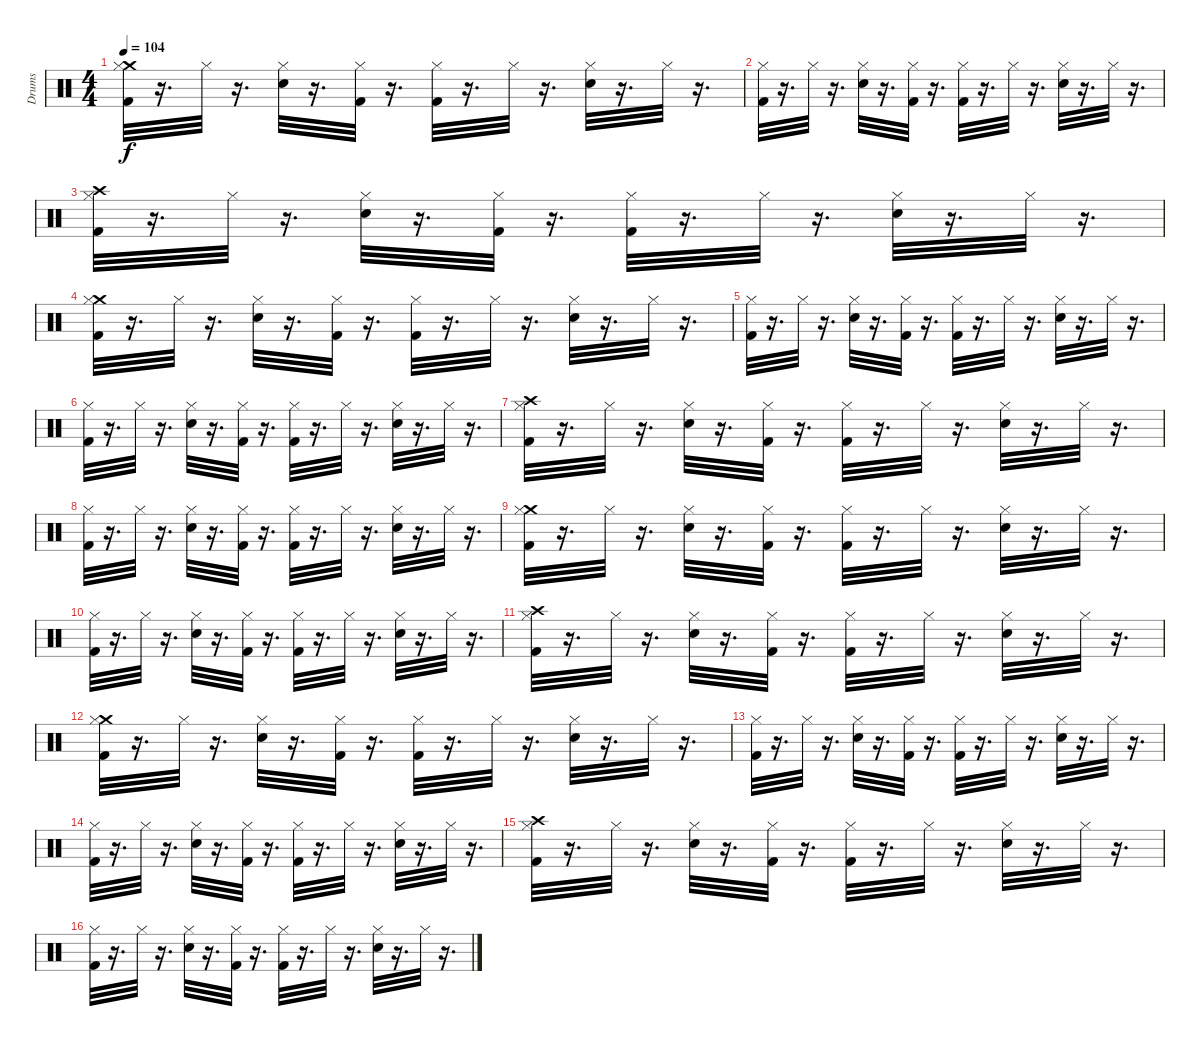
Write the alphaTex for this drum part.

\track ("Drums" "Drums") {instrument percussion}
\staff {score}
\articulation defaults
\ts (4 4)
\tempo 104
\clef neutral
\ks c
("Crash medium (hit)" "Hi-Hat (closed)" "Kick (hit) 2").32{dy f} r.16{d} "Hi-Hat (closed)".32 r.16{d} ("Hi-Hat (closed)" "Snare (hit) 2").32 r.16{d} ("Kick (hit) 2" "Hi-Hat (closed)").32 r.16{d} ("Hi-Hat (closed)" "Kick (hit) 2").32 r.16{d} "Hi-Hat (closed)".32 r.16{d} ("Hi-Hat (closed)" "Snare (hit) 2").32 r.16{d} "Hi-Hat (closed)".32 r.16{d} |
("Hi-Hat (closed)" "Kick (hit) 2").32 r.16{d} "Hi-Hat (closed)".32 r.16{d} ("Hi-Hat (closed)" "Snare (hit) 2").32 r.16{d} ("Kick (hit) 2" "Hi-Hat (closed)").32 r.16{d} ("Hi-Hat (closed)" "Kick (hit) 2").32 r.16{d} "Hi-Hat (closed)".32 r.16{d} ("Hi-Hat (closed)" "Snare (hit) 2").32 r.16{d} "Hi-Hat (closed)".32 r.16{d} |
("Crash high (hit)" "Hi-Hat (closed)" "Kick (hit) 2").32 r.16{d} "Hi-Hat (closed)".32 r.16{d} ("Hi-Hat (closed)" "Snare (hit) 2").32 r.16{d} ("Kick (hit) 2" "Hi-Hat (closed)").32 r.16{d} ("Hi-Hat (closed)" "Kick (hit) 2").32 r.16{d} "Hi-Hat (closed)".32 r.16{d} ("Hi-Hat (closed)" "Snare (hit) 2").32 r.16{d} "Hi-Hat (closed)".32 r.16{d} |
("Crash medium (hit)" "Hi-Hat (closed)" "Kick (hit) 2").32 r.16{d} "Hi-Hat (closed)".32 r.16{d} ("Hi-Hat (closed)" "Snare (hit) 2").32 r.16{d} ("Kick (hit) 2" "Hi-Hat (closed)").32 r.16{d} ("Hi-Hat (closed)" "Kick (hit) 2").32 r.16{d} "Hi-Hat (closed)".32 r.16{d} ("Hi-Hat (closed)" "Snare (hit) 2").32 r.16{d} "Hi-Hat (closed)".32 r.16{d} |
("Hi-Hat (closed)" "Kick (hit) 2").32 r.16{d} "Hi-Hat (closed)".32 r.16{d} ("Hi-Hat (closed)" "Snare (hit) 2").32 r.16{d} ("Kick (hit) 2" "Hi-Hat (closed)").32 r.16{d} ("Hi-Hat (closed)" "Kick (hit) 2").32 r.16{d} "Hi-Hat (closed)".32 r.16{d} ("Hi-Hat (closed)" "Snare (hit) 2").32 r.16{d} "Hi-Hat (closed)".32 r.16{d} |
("Hi-Hat (closed)" "Kick (hit) 2").32 r.16{d} "Hi-Hat (closed)".32 r.16{d} ("Hi-Hat (closed)" "Snare (hit) 2").32 r.16{d} ("Kick (hit) 2" "Hi-Hat (closed)").32 r.16{d} ("Hi-Hat (closed)" "Kick (hit) 2").32 r.16{d} "Hi-Hat (closed)".32 r.16{d} ("Hi-Hat (closed)" "Snare (hit) 2").32 r.16{d} "Hi-Hat (closed)".32 r.16{d} |
("Crash high (hit)" "Hi-Hat (closed)" "Kick (hit) 2").32 r.16{d} "Hi-Hat (closed)".32 r.16{d} ("Hi-Hat (closed)" "Snare (hit) 2").32 r.16{d} ("Kick (hit) 2" "Hi-Hat (closed)").32 r.16{d} ("Hi-Hat (closed)" "Kick (hit) 2").32 r.16{d} "Hi-Hat (closed)".32 r.16{d} ("Hi-Hat (closed)" "Snare (hit) 2").32 r.16{d} "Hi-Hat (closed)".32 r.16{d} |
("Hi-Hat (closed)" "Kick (hit) 2").32 r.16{d} "Hi-Hat (closed)".32 r.16{d} ("Hi-Hat (closed)" "Snare (hit) 2").32 r.16{d} ("Kick (hit) 2" "Hi-Hat (closed)").32 r.16{d} ("Hi-Hat (closed)" "Kick (hit) 2").32 r.16{d} "Hi-Hat (closed)".32 r.16{d} ("Hi-Hat (closed)" "Snare (hit) 2").32 r.16{d} "Hi-Hat (closed)".32 r.16{d} |
("Crash medium (hit)" "Hi-Hat (closed)" "Kick (hit) 2").32 r.16{d} "Hi-Hat (closed)".32 r.16{d} ("Hi-Hat (closed)" "Snare (hit) 2").32 r.16{d} ("Kick (hit) 2" "Hi-Hat (closed)").32 r.16{d} ("Hi-Hat (closed)" "Kick (hit) 2").32 r.16{d} "Hi-Hat (closed)".32 r.16{d} ("Hi-Hat (closed)" "Snare (hit) 2").32 r.16{d} "Hi-Hat (closed)".32 r.16{d} |
("Hi-Hat (closed)" "Kick (hit) 2").32 r.16{d} "Hi-Hat (closed)".32 r.16{d} ("Hi-Hat (closed)" "Snare (hit) 2").32 r.16{d} ("Kick (hit) 2" "Hi-Hat (closed)").32 r.16{d} ("Hi-Hat (closed)" "Kick (hit) 2").32 r.16{d} "Hi-Hat (closed)".32 r.16{d} ("Hi-Hat (closed)" "Snare (hit) 2").32 r.16{d} "Hi-Hat (closed)".32 r.16{d} |
("Crash high (hit)" "Hi-Hat (closed)" "Kick (hit) 2").32 r.16{d} "Hi-Hat (closed)".32 r.16{d} ("Hi-Hat (closed)" "Snare (hit) 2").32 r.16{d} ("Kick (hit) 2" "Hi-Hat (closed)").32 r.16{d} ("Hi-Hat (closed)" "Kick (hit) 2").32 r.16{d} "Hi-Hat (closed)".32 r.16{d} ("Hi-Hat (closed)" "Snare (hit) 2").32 r.16{d} "Hi-Hat (closed)".32 r.16{d} |
("Crash medium (hit)" "Hi-Hat (closed)" "Kick (hit) 2").32 r.16{d} "Hi-Hat (closed)".32 r.16{d} ("Hi-Hat (closed)" "Snare (hit) 2").32 r.16{d} ("Kick (hit) 2" "Hi-Hat (closed)").32 r.16{d} ("Hi-Hat (closed)" "Kick (hit) 2").32 r.16{d} "Hi-Hat (closed)".32 r.16{d} ("Hi-Hat (closed)" "Snare (hit) 2").32 r.16{d} "Hi-Hat (closed)".32 r.16{d} |
("Hi-Hat (closed)" "Kick (hit) 2").32 r.16{d} "Hi-Hat (closed)".32 r.16{d} ("Hi-Hat (closed)" "Snare (hit) 2").32 r.16{d} ("Kick (hit) 2" "Hi-Hat (closed)").32 r.16{d} ("Hi-Hat (closed)" "Kick (hit) 2").32 r.16{d} "Hi-Hat (closed)".32 r.16{d} ("Hi-Hat (closed)" "Snare (hit) 2").32 r.16{d} "Hi-Hat (closed)".32 r.16{d} |
("Hi-Hat (closed)" "Kick (hit) 2").32 r.16{d} "Hi-Hat (closed)".32 r.16{d} ("Hi-Hat (closed)" "Snare (hit) 2").32 r.16{d} ("Kick (hit) 2" "Hi-Hat (closed)").32 r.16{d} ("Hi-Hat (closed)" "Kick (hit) 2").32 r.16{d} "Hi-Hat (closed)".32 r.16{d} ("Hi-Hat (closed)" "Snare (hit) 2").32 r.16{d} "Hi-Hat (closed)".32 r.16{d} |
("Crash high (hit)" "Hi-Hat (closed)" "Kick (hit) 2").32 r.16{d} "Hi-Hat (closed)".32 r.16{d} ("Hi-Hat (closed)" "Snare (hit) 2").32 r.16{d} ("Kick (hit) 2" "Hi-Hat (closed)").32 r.16{d} ("Hi-Hat (closed)" "Kick (hit) 2").32 r.16{d} "Hi-Hat (closed)".32 r.16{d} ("Hi-Hat (closed)" "Snare (hit) 2").32 r.16{d} "Hi-Hat (closed)".32 r.16{d} |
("Hi-Hat (closed)" "Kick (hit) 2").32 r.16{d} "Hi-Hat (closed)".32 r.16{d} ("Hi-Hat (closed)" "Snare (hit) 2").32 r.16{d} ("Kick (hit) 2" "Hi-Hat (closed)").32 r.16{d} ("Hi-Hat (closed)" "Kick (hit) 2").32 r.16{d} "Hi-Hat (closed)".32 r.16{d} ("Hi-Hat (closed)" "Snare (hit) 2").32 r.16{d} "Hi-Hat (closed)".32 r.16{d}
